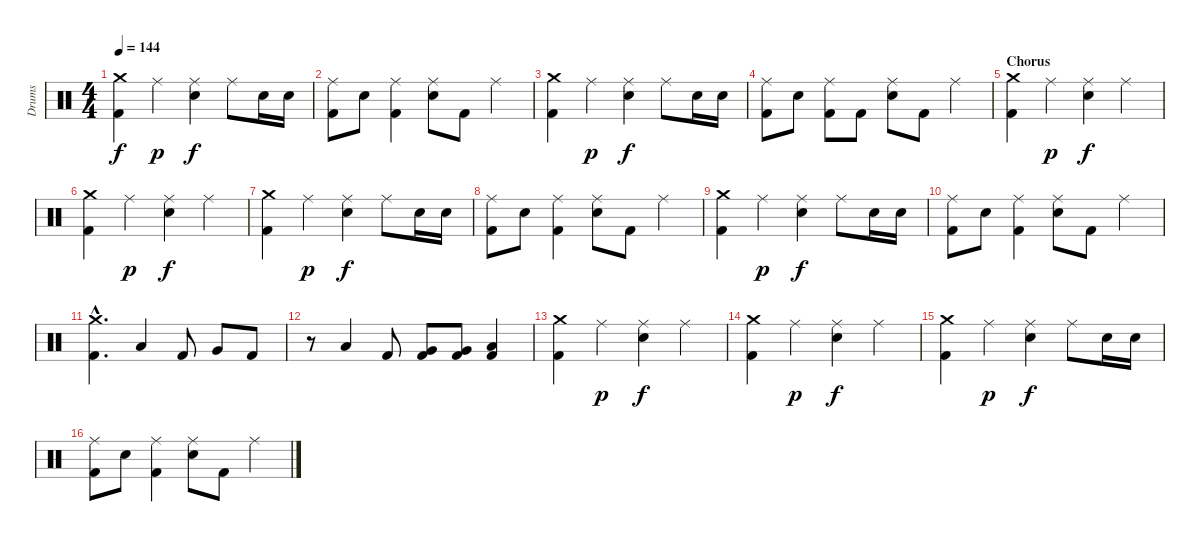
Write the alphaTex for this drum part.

\track ("Drums" "Drums") {instrument percussion}
\staff {score}
\articulation defaults
\ts (4 4)
\tempo 144
\clef neutral
\ks c
("Crash medium (hit)" "Kick (hit) 2").4{dy f} "Ride (middle)".4{dy p} ("Ride (middle)" "Snare (hit) 2").4{dy f} "Ride (middle)".8 "Snare (hit) 2".16 "Snare (hit) 2".16 |
("Ride (middle)" "Kick (hit) 2").8 "Snare (hit) 2".8 ("Ride (middle)" "Kick (hit) 2").4 ("Ride (middle)" "Snare (hit) 2").8 "Kick (hit) 2".8 "Ride (middle)".4 |
("Crash medium (hit)" "Kick (hit) 2").4 "Ride (middle)".4{dy p} ("Ride (middle)" "Snare (hit) 2").4{dy f} "Ride (middle)".8 "Snare (hit) 2".16 "Snare (hit) 2".16 |
("Ride (middle)" "Kick (hit) 2").8 "Snare (hit) 2".8 ("Ride (middle)" "Kick (hit) 2").8 "Kick (hit) 2".8 ("Ride (middle)" "Snare (hit) 2").8 "Kick (hit) 2".8 "Ride (middle)".4 |
\section ("" "Chorus")
("Crash medium (hit)" "Kick (hit) 2").4 "Ride (middle)".4{dy p} ("Ride (middle)" "Snare (hit) 2").4{dy f} "Ride (middle)".4 |
("Crash medium (hit)" "Kick (hit) 2").4 "Ride (middle)".4{dy p} ("Ride (middle)" "Snare (hit) 2").4{dy f} "Ride (middle)".4 |
("Crash medium (hit)" "Kick (hit) 2").4 "Ride (middle)".4{dy p} ("Ride (middle)" "Snare (hit) 2").4{dy f} "Ride (middle)".8 "Snare (hit) 2".16 "Snare (hit) 2".16 |
("Ride (middle)" "Kick (hit) 2").8 "Snare (hit) 2".8 ("Ride (middle)" "Kick (hit) 2").4 ("Ride (middle)" "Snare (hit) 2").8 "Kick (hit) 2".8 "Ride (middle)".4 |
("Crash medium (hit)" "Kick (hit) 2").4 "Ride (middle)".4{dy p} ("Ride (middle)" "Snare (hit) 2").4{dy f} "Ride (middle)".8 "Snare (hit) 2".16 "Snare (hit) 2".16 |
("Ride (middle)" "Kick (hit) 2").8 "Snare (hit) 2".8 ("Ride (middle)" "Kick (hit) 2").4 ("Ride (middle)" "Snare (hit) 2").8 "Kick (hit) 2".8 "Ride (middle)".4 |
("Crash medium (hit)"{hac} "Kick (hit) 2"{hac}).4{d} "Low Tom (hit)".4 "Kick (hit) 2".8 "Very Low Tom (hit)".8 "Kick (hit) 2".8 |
r.8 "Low Tom (hit)".4 "Kick (hit) 2".8 ("Very Low Tom (hit)" "Kick (hit) 2").8 ("Very Low Tom (hit)" "Kick (hit) 2").8 ("Low Floor Tom (hit)" "Kick (hit) 2").4 |
("Crash medium (hit)" "Kick (hit) 2").4 "Ride (middle)".4{dy p} ("Ride (middle)" "Snare (hit) 2").4{dy f} "Ride (middle)".4 |
("Crash medium (hit)" "Kick (hit) 2").4 "Ride (middle)".4{dy p} ("Ride (middle)" "Snare (hit) 2").4{dy f} "Ride (middle)".4 |
("Crash medium (hit)" "Kick (hit) 2").4 "Ride (middle)".4{dy p} ("Ride (middle)" "Snare (hit) 2").4{dy f} "Ride (middle)".8 "Snare (hit) 2".16 "Snare (hit) 2".16 |
("Ride (middle)" "Kick (hit) 2").8 "Snare (hit) 2".8 ("Ride (middle)" "Kick (hit) 2").4 ("Ride (middle)" "Snare (hit) 2").8 "Kick (hit) 2".8 "Ride (middle)".4
